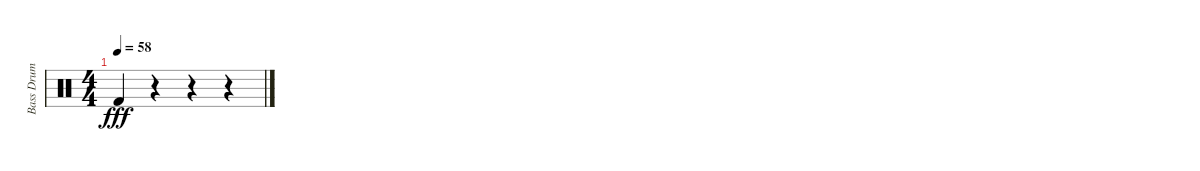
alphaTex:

\track ("Bass Drum" "Bass Drum") {instrument percussion}
\staff {score}
\articulation defaults
\ts (4 4)
\tempo 58
\clef neutral
\ks c "Kick (hit) 2".4{dy fff}
r.4 r.4 r.4
